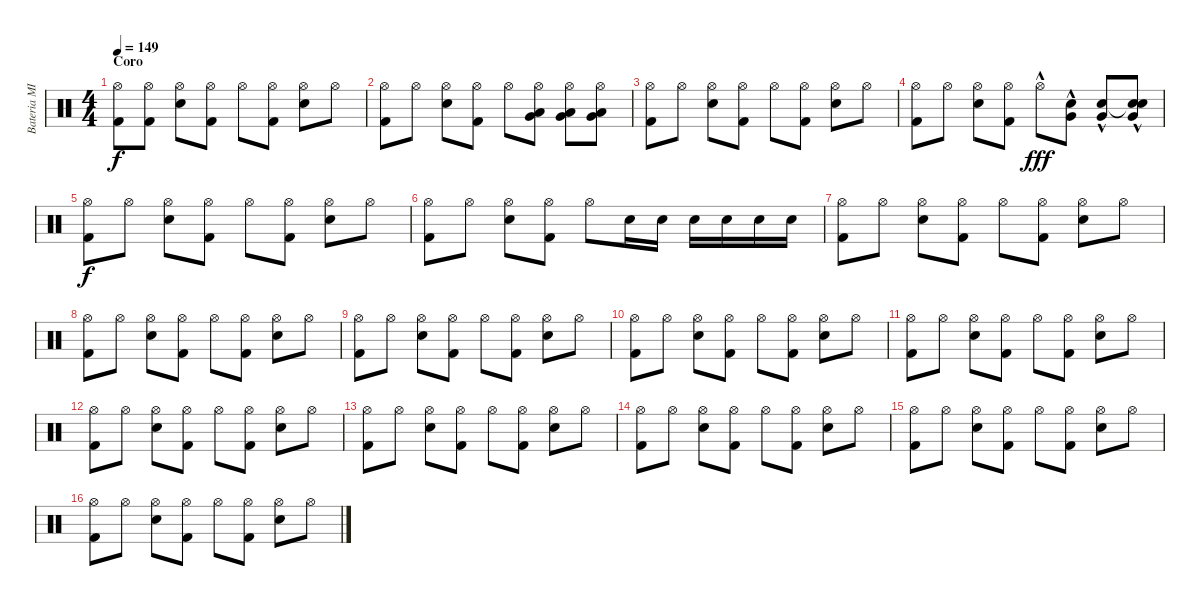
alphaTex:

\track ("Bateria MIDI" "Bateria MI") {instrument percussion}
\staff {score}
\articulation defaults
\ts (4 4)
\section ("" "Coro")
\tempo 149
\clef neutral
\ks c
("Hi-Hat (open)" "Kick (hit) 2").8{dy f} ("Hi-Hat (open)" "Kick (hit) 2").8 ("Hi-Hat (open)" "Snare (hit) 2").8 ("Hi-Hat (open)" "Kick (hit) 2").8 "Hi-Hat (open)".8 ("Hi-Hat (open)" "Kick (hit) 2").8 ("Hi-Hat (open)" "Snare (hit) 2").8 "Hi-Hat (open)".8 |
("Hi-Hat (open)" "Kick (hit) 2").8 "Hi-Hat (open)".8 ("Hi-Hat (open)" "Snare (hit) 2").8 ("Hi-Hat (open)" "Kick (hit) 2").8 "Hi-Hat (open)".8 ("Hi-Hat (open)" "Low Tom (hit)" "Very Low Tom (hit)").8 ("Hi-Hat (open)" "Low Tom (hit)" "Very Low Tom (hit)").8 ("Hi-Hat (open)" "Low Tom (hit)" "Very Low Tom (hit)").8 |
("Hi-Hat (open)" "Kick (hit) 2").8 "Hi-Hat (open)".8 ("Hi-Hat (open)" "Snare (hit) 2").8 ("Hi-Hat (open)" "Kick (hit) 2").8 "Hi-Hat (open)".8 ("Hi-Hat (open)" "Kick (hit) 2").8 ("Hi-Hat (open)" "Snare (hit) 2").8 "Hi-Hat (open)".8 |
("Hi-Hat (open)" "Kick (hit) 2").8 "Hi-Hat (open)".8 ("Hi-Hat (open)" "Snare (hit) 2").8 ("Hi-Hat (open)" "Kick (hit) 2").8 "Hi-Hat (open)"{hac}.8{dy fff} ("Snare (hit) 2"{hac} "Very Low Tom (hit)"{hac}).8 ("Snare (hit) 2"{hac} "Very Low Tom (hit)"{hac}).8 ("Snare (hit)"{t} "Snare (hit) 2"{hac} "Very Low Tom (hit)"{hac}).8 |
("Hi-Hat (open)" "Kick (hit) 2").8{dy f} "Hi-Hat (open)".8 ("Hi-Hat (open)" "Snare (hit) 2").8 ("Hi-Hat (open)" "Kick (hit) 2").8 "Hi-Hat (open)".8 ("Hi-Hat (open)" "Kick (hit) 2").8 ("Hi-Hat (open)" "Snare (hit) 2").8 "Hi-Hat (open)".8 |
("Hi-Hat (open)" "Kick (hit) 2").8 "Hi-Hat (open)".8 ("Hi-Hat (open)" "Snare (hit) 2").8 ("Hi-Hat (open)" "Kick (hit) 2").8 "Hi-Hat (open)".8 "Snare (hit) 2".16 "Snare (hit) 2".16 "Snare (hit) 2".16 "Snare (hit) 2".16 "Snare (hit) 2".16 "Snare (hit) 2".16 |
("Hi-Hat (open)" "Kick (hit) 2").8 "Hi-Hat (open)".8 ("Hi-Hat (open)" "Snare (hit) 2").8 ("Hi-Hat (open)" "Kick (hit) 2").8 "Hi-Hat (open)".8 ("Hi-Hat (open)" "Kick (hit) 2").8 ("Hi-Hat (open)" "Snare (hit) 2").8 "Hi-Hat (open)".8 |
("Hi-Hat (open)" "Kick (hit) 2").8 "Hi-Hat (open)".8 ("Hi-Hat (open)" "Snare (hit) 2").8 ("Hi-Hat (open)" "Kick (hit) 2").8 "Hi-Hat (open)".8 ("Hi-Hat (open)" "Kick (hit) 2").8 ("Hi-Hat (open)" "Snare (hit) 2").8 "Hi-Hat (open)".8 |
("Hi-Hat (open)" "Kick (hit) 2").8 "Hi-Hat (open)".8 ("Hi-Hat (open)" "Snare (hit) 2").8 ("Hi-Hat (open)" "Kick (hit) 2").8 "Hi-Hat (open)".8 ("Hi-Hat (open)" "Kick (hit) 2").8 ("Hi-Hat (open)" "Snare (hit) 2").8 "Hi-Hat (open)".8 |
("Hi-Hat (open)" "Kick (hit) 2").8 "Hi-Hat (open)".8 ("Hi-Hat (open)" "Snare (hit) 2").8 ("Hi-Hat (open)" "Kick (hit) 2").8 "Hi-Hat (open)".8 ("Hi-Hat (open)" "Kick (hit) 2").8 ("Hi-Hat (open)" "Snare (hit) 2").8 "Hi-Hat (open)".8 |
("Hi-Hat (open)" "Kick (hit) 2").8 "Hi-Hat (open)".8 ("Hi-Hat (open)" "Snare (hit) 2").8 ("Hi-Hat (open)" "Kick (hit) 2").8 "Hi-Hat (open)".8 ("Hi-Hat (open)" "Kick (hit) 2").8 ("Hi-Hat (open)" "Snare (hit) 2").8 "Hi-Hat (open)".8 |
("Hi-Hat (open)" "Kick (hit) 2").8 "Hi-Hat (open)".8 ("Hi-Hat (open)" "Snare (hit) 2").8 ("Hi-Hat (open)" "Kick (hit) 2").8 "Hi-Hat (open)".8 ("Hi-Hat (open)" "Kick (hit) 2").8 ("Hi-Hat (open)" "Snare (hit) 2").8 "Hi-Hat (open)".8 |
("Hi-Hat (open)" "Kick (hit) 2").8 "Hi-Hat (open)".8 ("Hi-Hat (open)" "Snare (hit) 2").8 ("Hi-Hat (open)" "Kick (hit) 2").8 "Hi-Hat (open)".8 ("Hi-Hat (open)" "Kick (hit) 2").8 ("Hi-Hat (open)" "Snare (hit) 2").8 "Hi-Hat (open)".8 |
("Hi-Hat (open)" "Kick (hit) 2").8 "Hi-Hat (open)".8 ("Hi-Hat (open)" "Snare (hit) 2").8 ("Hi-Hat (open)" "Kick (hit) 2").8 "Hi-Hat (open)".8 ("Hi-Hat (open)" "Kick (hit) 2").8 ("Hi-Hat (open)" "Snare (hit) 2").8 "Hi-Hat (open)".8 |
("Hi-Hat (open)" "Kick (hit) 2").8 "Hi-Hat (open)".8 ("Hi-Hat (open)" "Snare (hit) 2").8 ("Hi-Hat (open)" "Kick (hit) 2").8 "Hi-Hat (open)".8 ("Hi-Hat (open)" "Kick (hit) 2").8 ("Hi-Hat (open)" "Snare (hit) 2").8 "Hi-Hat (open)".8 |
("Hi-Hat (open)" "Kick (hit) 2").8 "Hi-Hat (open)".8 ("Hi-Hat (open)" "Snare (hit) 2").8 ("Hi-Hat (open)" "Kick (hit) 2").8 "Hi-Hat (open)".8 ("Hi-Hat (open)" "Kick (hit) 2").8 ("Hi-Hat (open)" "Snare (hit) 2").8 "Hi-Hat (open)".8
